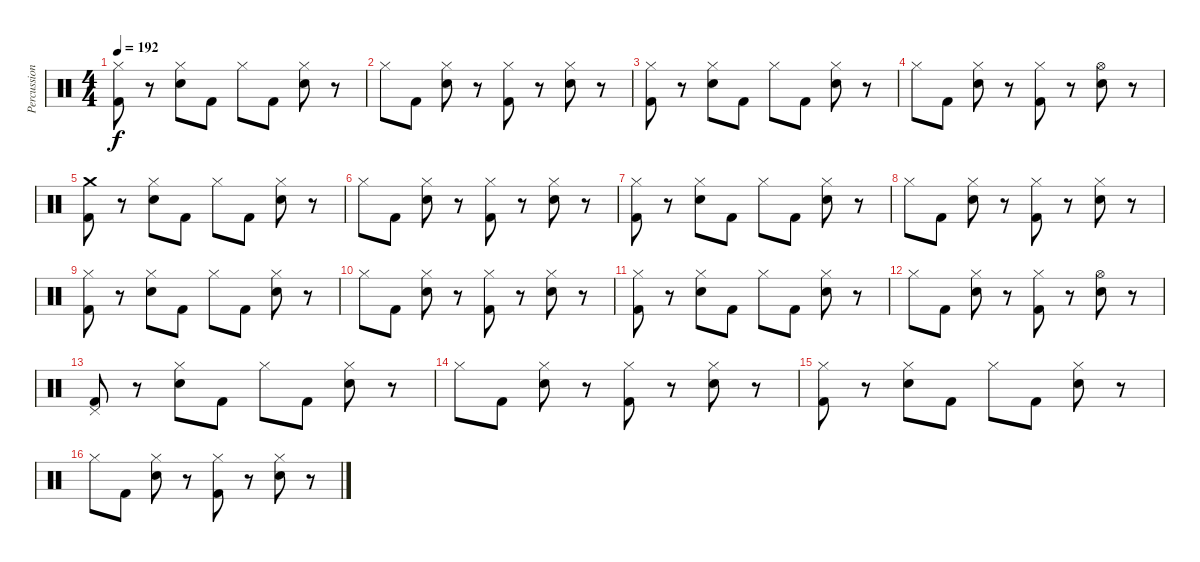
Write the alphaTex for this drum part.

\track ("Percussion" "Percussion") {instrument percussion}
\staff {score}
\articulation defaults
\ts (4 4)
\tempo 192
\clef neutral
\ks c
("Hi-Hat (closed)" "Kick (hit) 2").8{dy f} r.8 ("Hi-Hat (closed)" "Electric Snare (hit)").8 "Kick (hit) 2".8 "Hi-Hat (closed)".8 "Kick (hit) 2".8 ("Hi-Hat (closed)" "Electric Snare (hit)").8 r.8 |
"Hi-Hat (closed)".8 "Kick (hit) 2".8 ("Hi-Hat (closed)" "Electric Snare (hit)").8 r.8 ("Hi-Hat (closed)" "Kick (hit) 2").8 r.8 ("Hi-Hat (closed)" "Electric Snare (hit)").8 r.8 |
("Hi-Hat (closed)" "Kick (hit) 2").8 r.8 ("Hi-Hat (closed)" "Electric Snare (hit)").8 "Kick (hit) 2".8 "Hi-Hat (closed)".8 "Kick (hit) 2".8 ("Hi-Hat (closed)" "Electric Snare (hit)").8 r.8 |
"Hi-Hat (closed)".8 "Kick (hit) 2".8 ("Hi-Hat (closed)" "Electric Snare (hit)").8 r.8 ("Hi-Hat (closed)" "Kick (hit) 2").8 r.8 ("Hi-Hat (open)" "Electric Snare (hit)").8 r.8 |
("Crash medium (hit)" "Kick (hit) 2").8 r.8 ("Hi-Hat (closed)" "Electric Snare (hit)").8 "Kick (hit) 2".8 "Hi-Hat (closed)".8 "Kick (hit) 2".8 ("Hi-Hat (closed)" "Electric Snare (hit)").8 r.8 |
"Hi-Hat (closed)".8 "Kick (hit) 2".8 ("Hi-Hat (closed)" "Electric Snare (hit)").8 r.8 ("Hi-Hat (closed)" "Kick (hit) 2").8 r.8 ("Hi-Hat (closed)" "Electric Snare (hit)").8 r.8 |
("Hi-Hat (closed)" "Kick (hit) 2").8 r.8 ("Hi-Hat (closed)" "Electric Snare (hit)").8 "Kick (hit) 2".8 "Hi-Hat (closed)".8 "Kick (hit) 2".8 ("Hi-Hat (closed)" "Electric Snare (hit)").8 r.8 |
"Hi-Hat (closed)".8 "Kick (hit) 2".8 ("Hi-Hat (closed)" "Electric Snare (hit)").8 r.8 ("Hi-Hat (closed)" "Kick (hit) 2").8 r.8 ("Hi-Hat (closed)" "Electric Snare (hit)").8 r.8 |
("Hi-Hat (closed)" "Kick (hit) 2").8 r.8 ("Hi-Hat (closed)" "Electric Snare (hit)").8 "Kick (hit) 2".8 "Hi-Hat (closed)".8 "Kick (hit) 2".8 ("Hi-Hat (closed)" "Electric Snare (hit)").8 r.8 |
"Hi-Hat (closed)".8 "Kick (hit) 2".8 ("Hi-Hat (closed)" "Electric Snare (hit)").8 r.8 ("Hi-Hat (closed)" "Kick (hit) 2").8 r.8 ("Hi-Hat (closed)" "Electric Snare (hit)").8 r.8 |
("Hi-Hat (closed)" "Kick (hit) 2").8 r.8 ("Hi-Hat (closed)" "Electric Snare (hit)").8 "Kick (hit) 2".8 "Hi-Hat (closed)".8 "Kick (hit) 2".8 ("Hi-Hat (closed)" "Electric Snare (hit)").8 r.8 |
"Hi-Hat (closed)".8 "Kick (hit) 2".8 ("Hi-Hat (closed)" "Electric Snare (hit)").8 r.8 ("Hi-Hat (closed)" "Kick (hit) 2").8 r.8 ("Hi-Hat (open)" "Electric Snare (hit)").8 r.8 |
("Pedal Hi-Hat (hit)" "Kick (hit) 2").8 r.8 ("Hi-Hat (closed)" "Electric Snare (hit)").8 "Kick (hit) 2".8 "Hi-Hat (closed)".8 "Kick (hit) 2".8 ("Hi-Hat (closed)" "Electric Snare (hit)").8 r.8 |
"Hi-Hat (closed)".8 "Kick (hit) 2".8 ("Hi-Hat (closed)" "Electric Snare (hit)").8 r.8 ("Hi-Hat (closed)" "Kick (hit) 2").8 r.8 ("Hi-Hat (closed)" "Electric Snare (hit)").8 r.8 |
("Hi-Hat (closed)" "Kick (hit) 2").8 r.8 ("Hi-Hat (closed)" "Electric Snare (hit)").8 "Kick (hit) 2".8 "Hi-Hat (closed)".8 "Kick (hit) 2".8 ("Hi-Hat (closed)" "Electric Snare (hit)").8 r.8 |
"Hi-Hat (closed)".8 "Kick (hit) 2".8 ("Hi-Hat (closed)" "Electric Snare (hit)").8 r.8 ("Hi-Hat (closed)" "Kick (hit) 2").8 r.8 ("Hi-Hat (closed)" "Electric Snare (hit)").8 r.8
